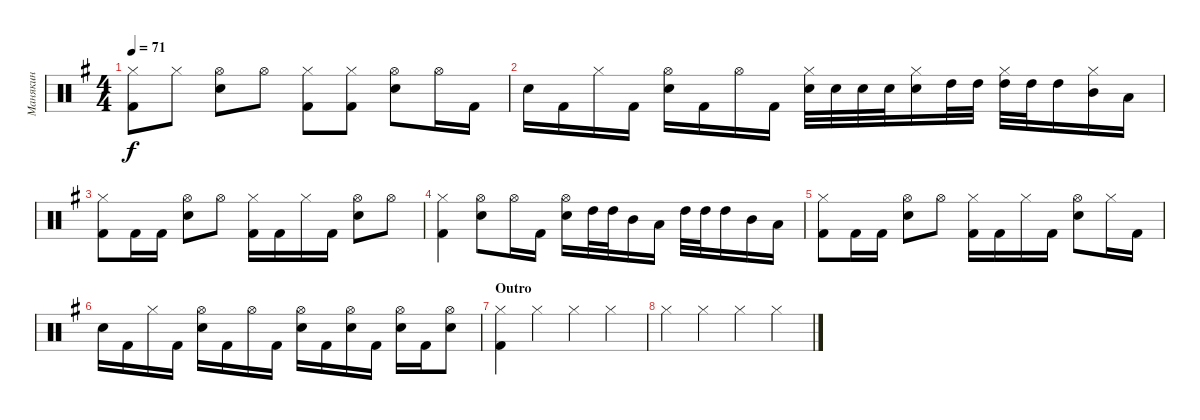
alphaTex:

\track ("Манякин" "Манякин") {instrument percussion}
\staff {score}
\articulation defaults
\ts (4 4)
\tempo 71
\clef neutral
\ks eminor
("Hi-Hat (closed)" "Kick (hit) 2").8{dy f} "Hi-Hat (closed)".8 ("Hi-Hat (open)" "Snare (hit) 2").8 "Hi-Hat (open)".8 ("Hi-Hat (closed)" "Kick (hit) 2").8 ("Hi-Hat (closed)" "Kick (hit) 2").8 ("Hi-Hat (open)" "Snare (hit) 2").8 "Hi-Hat (open)".16 "Kick (hit) 2".16 |
"Snare (hit) 2".16 "Kick (hit) 2".16 "Hi-Hat (closed)".16 "Kick (hit) 2".16 ("Hi-Hat (open)" "Snare (hit) 2").16 "Kick (hit) 2".16 "Hi-Hat (open)".16 "Kick (hit) 2".16 ("Hi-Hat (closed)" "Snare (hit) 2").32 "Snare (hit) 2".32 "Snare (hit) 2".32 "Snare (hit) 2".32 ("Hi-Hat (closed)" "Snare (hit) 2").16 "High Tom (hit)".32 "High Tom (hit)".32 ("Hi-Hat (closed)" "High Tom (hit)").32 "High Tom (hit)".32 "High Tom (hit)".16 ("Hi-Hat (closed)" "Mid Tom (hit)").16 "Low Tom (hit)".16 |
("Hi-Hat (closed)" "Kick (hit) 2").8 "Kick (hit) 2".16 "Kick (hit) 2".16 ("Hi-Hat (open)" "Snare (hit) 2").8 "Hi-Hat (open)".8 ("Hi-Hat (closed)" "Kick (hit) 2").16 "Kick (hit) 2".16 "Hi-Hat (closed)".16 "Kick (hit) 2".16 ("Hi-Hat (open)" "Snare (hit) 2").8 "Hi-Hat (open)".8 |
("Hi-Hat (closed)" "Kick (hit) 2").4 ("Hi-Hat (open)" "Snare (hit) 2").8 "Hi-Hat (open)".16 "Kick (hit) 2".16 ("Hi-Hat (open)" "Snare (hit) 2").16 "High Tom (hit)".32 "High Tom (hit)".32 "Mid Tom (hit)".16 "Low Tom (hit)".16 "High Tom (hit)".32 "High Tom (hit)".32 "High Tom (hit)".16 "Mid Tom (hit)".16 "Low Tom (hit)".16 |
("Hi-Hat (closed)" "Kick (hit) 2").8 "Kick (hit) 2".16 "Kick (hit) 2".16 ("Hi-Hat (open)" "Snare (hit) 2").8 "Hi-Hat (open)".8 ("Hi-Hat (closed)" "Kick (hit) 2").16 "Kick (hit) 2".16 "Hi-Hat (closed)".16 "Kick (hit) 2".16 ("Hi-Hat (open)" "Snare (hit) 2").8 "Hi-Hat (closed)".16 "Kick (hit) 2".16 |
"Snare (hit) 2".16 "Kick (hit) 2".16 "Hi-Hat (closed)".16 "Kick (hit) 2".16 ("Hi-Hat (open)" "Snare (hit) 2").16 "Kick (hit) 2".16 "Hi-Hat (open)".16 "Kick (hit) 2".16 ("Hi-Hat (open)" "Snare (hit) 2").16 "Kick (hit) 2".16 ("Hi-Hat (open)" "Snare (hit) 2").16 "Kick (hit) 2".16 ("Hi-Hat (open)" "Snare (hit) 2").16 "Kick (hit) 2".16 ("Hi-Hat (open)" "Snare (hit) 2").8 |
\section ("" "Outro")
("Hi-Hat (closed)" "Kick (hit) 2").4 "Hi-Hat (closed)".4 "Hi-Hat (closed)".4 "Hi-Hat (closed)".4 |
"Hi-Hat (closed)".4 "Hi-Hat (closed)".4 "Hi-Hat (closed)".4 "Hi-Hat (closed)".4
